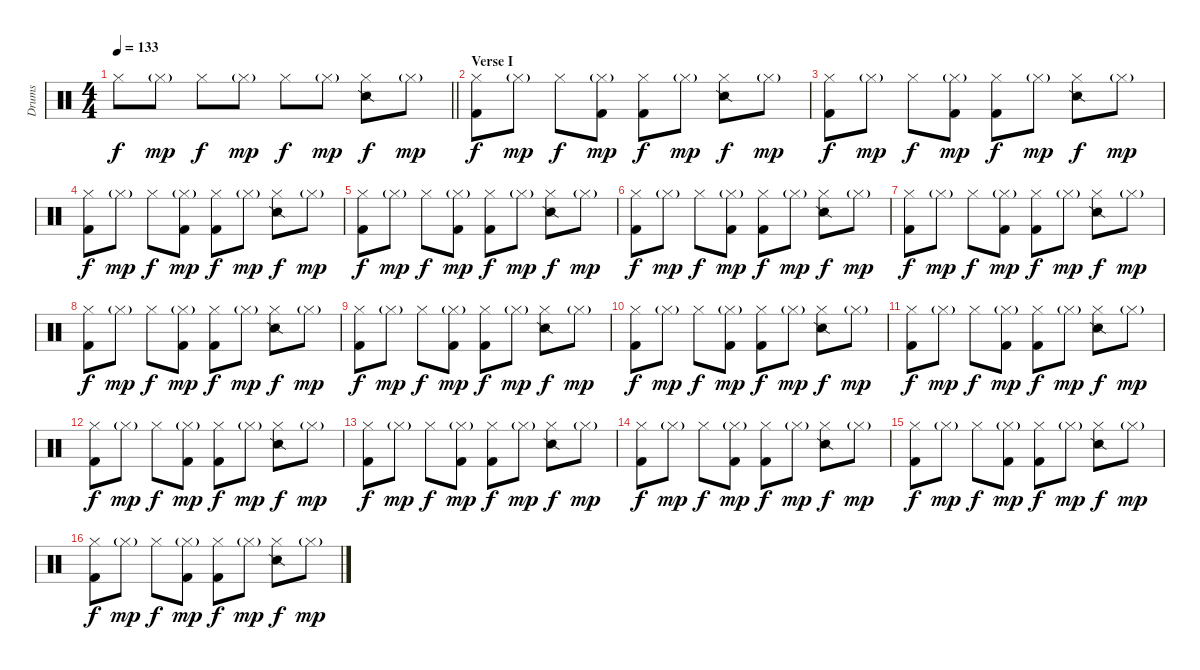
\track ("Drums" "Drums") {instrument percussion}
\staff {score}
\articulation defaults
\ts (4 4)
\tempo 133
\clef neutral
\barLineRight lightlight
\ks c "Hi-Hat (closed)".8{dy f} "Hi-Hat (closed)"{g}.8{dy mp} "Hi-Hat (closed)".8{dy f} "Hi-Hat (closed)"{g}.8{dy mp} "Hi-Hat (closed)".8{dy f} "Hi-Hat (closed)"{g}.8{dy mp}
("Hi-Hat (closed)" "Snare (side stick) 2").8{dy f} "Hi-Hat (closed)"{g}.8{dy mp} |
\section ("" "Verse I")
("Hi-Hat (closed)" "Kick (hit) 2").8{dy f} "Hi-Hat (closed)"{g}.8{dy mp} "Hi-Hat (closed)".8{dy f} ("Hi-Hat (closed)"{g} "Kick (hit) 2").8{dy mp} ("Hi-Hat (closed)" "Kick (hit) 2").8{dy f} "Hi-Hat (closed)"{g}.8{dy mp} ("Hi-Hat (closed)" "Snare (side stick) 2").8{dy f} "Hi-Hat (closed)"{g}.8{dy mp} |
("Hi-Hat (closed)" "Kick (hit) 2").8{dy f} "Hi-Hat (closed)"{g}.8{dy mp} "Hi-Hat (closed)".8{dy f} ("Hi-Hat (closed)"{g} "Kick (hit) 2").8{dy mp} ("Hi-Hat (closed)" "Kick (hit) 2").8{dy f} "Hi-Hat (closed)"{g}.8{dy mp} ("Hi-Hat (closed)" "Snare (side stick) 2").8{dy f} "Hi-Hat (closed)"{g}.8{dy mp} |
("Hi-Hat (closed)" "Kick (hit) 2").8{dy f} "Hi-Hat (closed)"{g}.8{dy mp} "Hi-Hat (closed)".8{dy f} ("Hi-Hat (closed)"{g} "Kick (hit) 2").8{dy mp} ("Hi-Hat (closed)" "Kick (hit) 2").8{dy f} "Hi-Hat (closed)"{g}.8{dy mp} ("Hi-Hat (closed)" "Snare (side stick) 2").8{dy f} "Hi-Hat (closed)"{g}.8{dy mp} |
("Hi-Hat (closed)" "Kick (hit) 2").8{dy f} "Hi-Hat (closed)"{g}.8{dy mp} "Hi-Hat (closed)".8{dy f} ("Hi-Hat (closed)"{g} "Kick (hit) 2").8{dy mp} ("Hi-Hat (closed)" "Kick (hit) 2").8{dy f} "Hi-Hat (closed)"{g}.8{dy mp} ("Hi-Hat (closed)" "Snare (side stick) 2").8{dy f} "Hi-Hat (closed)"{g}.8{dy mp} |
("Hi-Hat (closed)" "Kick (hit) 2").8{dy f} "Hi-Hat (closed)"{g}.8{dy mp} "Hi-Hat (closed)".8{dy f} ("Hi-Hat (closed)"{g} "Kick (hit) 2").8{dy mp} ("Hi-Hat (closed)" "Kick (hit) 2").8{dy f} "Hi-Hat (closed)"{g}.8{dy mp} ("Hi-Hat (closed)" "Snare (side stick) 2").8{dy f} "Hi-Hat (closed)"{g}.8{dy mp} |
("Hi-Hat (closed)" "Kick (hit) 2").8{dy f} "Hi-Hat (closed)"{g}.8{dy mp} "Hi-Hat (closed)".8{dy f} ("Hi-Hat (closed)"{g} "Kick (hit) 2").8{dy mp} ("Hi-Hat (closed)" "Kick (hit) 2").8{dy f} "Hi-Hat (closed)"{g}.8{dy mp} ("Hi-Hat (closed)" "Snare (side stick) 2").8{dy f} "Hi-Hat (closed)"{g}.8{dy mp} |
("Hi-Hat (closed)" "Kick (hit) 2").8{dy f} "Hi-Hat (closed)"{g}.8{dy mp} "Hi-Hat (closed)".8{dy f} ("Hi-Hat (closed)"{g} "Kick (hit) 2").8{dy mp} ("Hi-Hat (closed)" "Kick (hit) 2").8{dy f} "Hi-Hat (closed)"{g}.8{dy mp} ("Hi-Hat (closed)" "Snare (side stick) 2").8{dy f} "Hi-Hat (closed)"{g}.8{dy mp} |
("Hi-Hat (closed)" "Kick (hit) 2").8{dy f} "Hi-Hat (closed)"{g}.8{dy mp} "Hi-Hat (closed)".8{dy f} ("Hi-Hat (closed)"{g} "Kick (hit) 2").8{dy mp} ("Hi-Hat (closed)" "Kick (hit) 2").8{dy f} "Hi-Hat (closed)"{g}.8{dy mp} ("Hi-Hat (closed)" "Snare (side stick) 2").8{dy f} "Hi-Hat (closed)"{g}.8{dy mp} |
("Hi-Hat (closed)" "Kick (hit) 2").8{dy f} "Hi-Hat (closed)"{g}.8{dy mp} "Hi-Hat (closed)".8{dy f} ("Hi-Hat (closed)"{g} "Kick (hit) 2").8{dy mp} ("Hi-Hat (closed)" "Kick (hit) 2").8{dy f} "Hi-Hat (closed)"{g}.8{dy mp} ("Hi-Hat (closed)" "Snare (side stick) 2").8{dy f} "Hi-Hat (closed)"{g}.8{dy mp} |
("Hi-Hat (closed)" "Kick (hit) 2").8{dy f} "Hi-Hat (closed)"{g}.8{dy mp} "Hi-Hat (closed)".8{dy f} ("Hi-Hat (closed)"{g} "Kick (hit) 2").8{dy mp} ("Hi-Hat (closed)" "Kick (hit) 2").8{dy f} "Hi-Hat (closed)"{g}.8{dy mp} ("Hi-Hat (closed)" "Snare (side stick) 2").8{dy f} "Hi-Hat (closed)"{g}.8{dy mp} |
("Hi-Hat (closed)" "Kick (hit) 2").8{dy f} "Hi-Hat (closed)"{g}.8{dy mp} "Hi-Hat (closed)".8{dy f} ("Hi-Hat (closed)"{g} "Kick (hit) 2").8{dy mp} ("Hi-Hat (closed)" "Kick (hit) 2").8{dy f} "Hi-Hat (closed)"{g}.8{dy mp} ("Hi-Hat (closed)" "Snare (side stick) 2").8{dy f} "Hi-Hat (closed)"{g}.8{dy mp} |
("Hi-Hat (closed)" "Kick (hit) 2").8{dy f} "Hi-Hat (closed)"{g}.8{dy mp} "Hi-Hat (closed)".8{dy f} ("Hi-Hat (closed)"{g} "Kick (hit) 2").8{dy mp} ("Hi-Hat (closed)" "Kick (hit) 2").8{dy f} "Hi-Hat (closed)"{g}.8{dy mp} ("Hi-Hat (closed)" "Snare (side stick) 2").8{dy f} "Hi-Hat (closed)"{g}.8{dy mp} |
("Hi-Hat (closed)" "Kick (hit) 2").8{dy f} "Hi-Hat (closed)"{g}.8{dy mp} "Hi-Hat (closed)".8{dy f} ("Hi-Hat (closed)"{g} "Kick (hit) 2").8{dy mp} ("Hi-Hat (closed)" "Kick (hit) 2").8{dy f} "Hi-Hat (closed)"{g}.8{dy mp} ("Hi-Hat (closed)" "Snare (side stick) 2").8{dy f} "Hi-Hat (closed)"{g}.8{dy mp} |
("Hi-Hat (closed)" "Kick (hit) 2").8{dy f} "Hi-Hat (closed)"{g}.8{dy mp} "Hi-Hat (closed)".8{dy f} ("Hi-Hat (closed)"{g} "Kick (hit) 2").8{dy mp} ("Hi-Hat (closed)" "Kick (hit) 2").8{dy f} "Hi-Hat (closed)"{g}.8{dy mp} ("Hi-Hat (closed)" "Snare (side stick) 2").8{dy f} "Hi-Hat (closed)"{g}.8{dy mp} |
("Hi-Hat (closed)" "Kick (hit) 2").8{dy f} "Hi-Hat (closed)"{g}.8{dy mp} "Hi-Hat (closed)".8{dy f} ("Hi-Hat (closed)"{g} "Kick (hit) 2").8{dy mp} ("Hi-Hat (closed)" "Kick (hit) 2").8{dy f} "Hi-Hat (closed)"{g}.8{dy mp} ("Hi-Hat (closed)" "Snare (side stick) 2").8{dy f} "Hi-Hat (closed)"{g}.8{dy mp}
